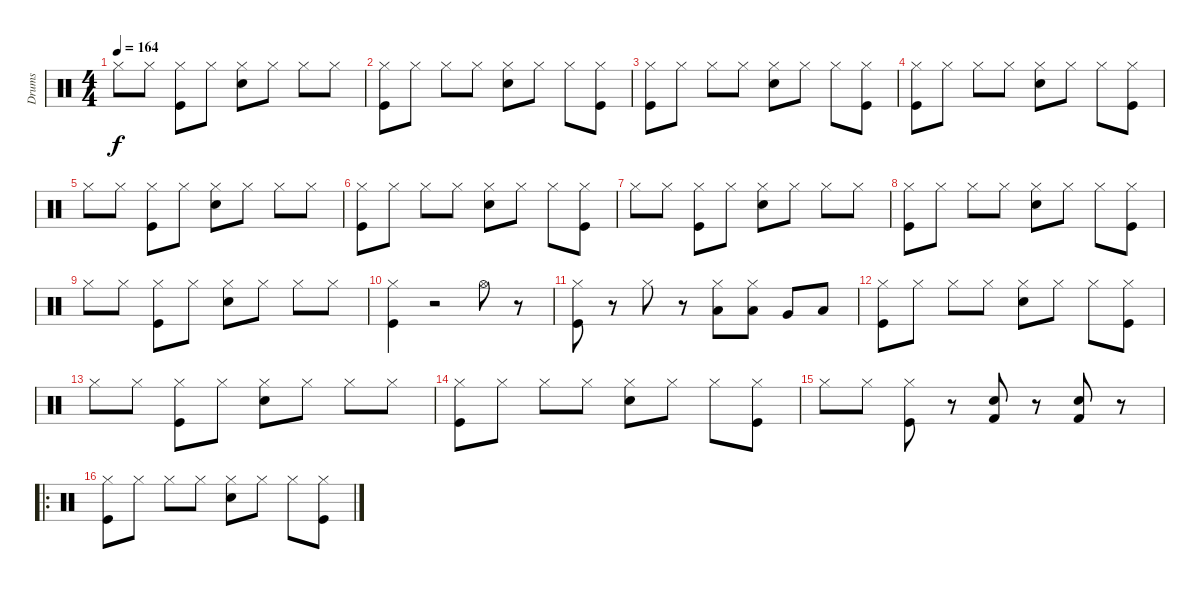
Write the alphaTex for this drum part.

\track ("Drums" "Drums") {instrument percussion}
\staff {score}
\articulation defaults
\ts (4 4)
\tempo 164
\clef neutral
\ks c "Hi-Hat (closed)".8{dy f} "Hi-Hat (closed)".8
("Kick (hit)" "Hi-Hat (closed)").8 "Hi-Hat (closed)".8 ("Snare (hit) 2" "Hi-Hat (closed)").8 "Hi-Hat (closed)".8 "Hi-Hat (closed)".8 "Hi-Hat (closed)".8 |
("Kick (hit)" "Hi-Hat (closed)").8 "Hi-Hat (closed)".8 "Hi-Hat (closed)".8 "Hi-Hat (closed)".8 ("Snare (hit) 2" "Hi-Hat (closed)").8 "Hi-Hat (closed)".8 "Hi-Hat (closed)".8 ("Kick (hit)" "Hi-Hat (closed)").8 |
("Kick (hit)" "Hi-Hat (closed)").8 "Hi-Hat (closed)".8 "Hi-Hat (closed)".8 "Hi-Hat (closed)".8 ("Snare (hit) 2" "Hi-Hat (closed)").8 "Hi-Hat (closed)".8 "Hi-Hat (closed)".8 ("Kick (hit)" "Hi-Hat (closed)").8 |
("Kick (hit)" "Hi-Hat (closed)").8 "Hi-Hat (closed)".8 "Hi-Hat (closed)".8 "Hi-Hat (closed)".8 ("Snare (hit) 2" "Hi-Hat (closed)").8 "Hi-Hat (closed)".8 "Hi-Hat (closed)".8 ("Kick (hit)" "Hi-Hat (closed)").8 |
"Hi-Hat (closed)".8 "Hi-Hat (closed)".8 ("Kick (hit)" "Hi-Hat (closed)").8 "Hi-Hat (closed)".8 ("Snare (hit) 2" "Hi-Hat (closed)").8 "Hi-Hat (closed)".8 "Hi-Hat (closed)".8 "Hi-Hat (closed)".8 |
("Kick (hit)" "Hi-Hat (closed)").8 "Hi-Hat (closed)".8 "Hi-Hat (closed)".8 "Hi-Hat (closed)".8 ("Snare (hit) 2" "Hi-Hat (closed)").8 "Hi-Hat (closed)".8 "Hi-Hat (closed)".8 ("Kick (hit)" "Hi-Hat (closed)").8 |
"Hi-Hat (closed)".8 "Hi-Hat (closed)".8 ("Kick (hit)" "Hi-Hat (closed)").8 "Hi-Hat (closed)".8 ("Snare (hit) 2" "Hi-Hat (closed)").8 "Hi-Hat (closed)".8 "Hi-Hat (closed)".8 "Hi-Hat (closed)".8 |
("Kick (hit)" "Hi-Hat (closed)").8 "Hi-Hat (closed)".8 "Hi-Hat (closed)".8 "Hi-Hat (closed)".8 ("Snare (hit) 2" "Hi-Hat (closed)").8 "Hi-Hat (closed)".8 "Hi-Hat (closed)".8 ("Kick (hit)" "Hi-Hat (closed)").8 |
"Hi-Hat (closed)".8 "Hi-Hat (closed)".8 ("Kick (hit)" "Hi-Hat (closed)").8 "Hi-Hat (closed)".8 ("Snare (hit) 2" "Hi-Hat (closed)").8 "Hi-Hat (closed)".8 "Hi-Hat (closed)".8 "Hi-Hat (closed)".8 |
("Kick (hit)" "Hi-Hat (closed)").4 r.2 "Hi-Hat (open)".8 r.8 |
("Kick (hit)" "Hi-Hat (closed)").8 r.8 "Hi-Hat (closed)".8 r.8 ("Low Tom (hit)" "Hi-Hat (closed)").8 ("Low Tom (hit)" "Hi-Hat (closed)").8 "Very Low Tom (hit)".8 "Low Floor Tom (hit)".8 |
("Kick (hit)" "Hi-Hat (closed)").8 "Hi-Hat (closed)".8 "Hi-Hat (closed)".8 "Hi-Hat (closed)".8 ("Snare (hit) 2" "Hi-Hat (closed)").8 "Hi-Hat (closed)".8 "Hi-Hat (closed)".8 ("Kick (hit)" "Hi-Hat (closed)").8 |
"Hi-Hat (closed)".8 "Hi-Hat (closed)".8 ("Kick (hit)" "Hi-Hat (closed)").8 "Hi-Hat (closed)".8 ("Snare (hit) 2" "Hi-Hat (closed)").8 "Hi-Hat (closed)".8 "Hi-Hat (closed)".8 "Hi-Hat (closed)".8 |
("Kick (hit)" "Hi-Hat (closed)").8 "Hi-Hat (closed)".8 "Hi-Hat (closed)".8 "Hi-Hat (closed)".8 ("Snare (hit) 2" "Hi-Hat (closed)").8 "Hi-Hat (closed)".8 "Hi-Hat (closed)".8 ("Kick (hit)" "Hi-Hat (closed)").8 |
"Hi-Hat (closed)".8 "Hi-Hat (closed)".8 ("Kick (hit)" "Hi-Hat (closed)").8 r.8 ("Snare (hit) 2" "Kick (hit) 2").8 r.8 ("Snare (hit) 2" "Kick (hit) 2").8 r.8 |
\ro
("Kick (hit)" "Hi-Hat (closed)").8 "Hi-Hat (closed)".8 "Hi-Hat (closed)".8 "Hi-Hat (closed)".8 ("Snare (hit) 2" "Hi-Hat (closed)").8 "Hi-Hat (closed)".8 "Hi-Hat (closed)".8 ("Kick (hit)" "Hi-Hat (closed)").8
